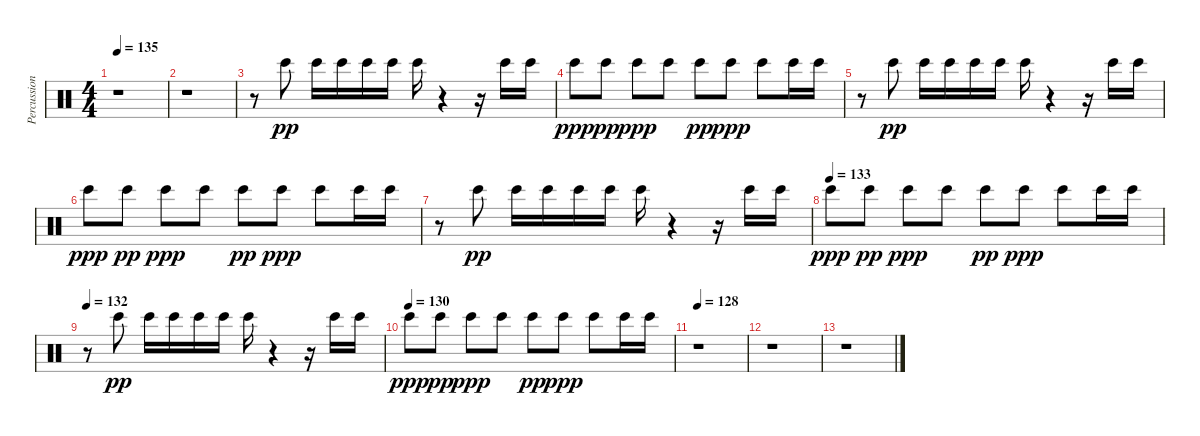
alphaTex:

\track ("Percussion" "Percussion") {instrument percussion}
\staff {score}
\articulation defaults
\ts (4 4)
\tempo 135
\clef neutral
\ks c
r.1{dy pp} |
r.1 |
r.8 "Bongo High (hit)".8{volume 15} "Bongo High (hit)".16{volume 15} "Bongo High (hit)".16{volume 15} "Bongo High (hit)".16{volume 15} "Bongo High (hit)".16{volume 14} "Bongo High (hit)".16{volume 14} r.4 r.16 "Bongo High (hit)".16{volume 13} "Bongo High (hit)".16{volume 13} |
"Bongo High (hit)".8{dy ppp volume 13} "Bongo High (hit)".8{dy pp volume 12} "Bongo High (hit)".8{dy ppp volume 12} "Bongo High (hit)".8{volume 11} "Bongo High (hit)".8{dy pp volume 11} "Bongo High (hit)".8{dy ppp volume 11} "Bongo High (hit)".8{volume 10} "Bongo High (hit)".16{volume 10} "Bongo High (hit)".16{volume 10} |
r.8 "Bongo High (hit)".8{dy pp volume 9} "Bongo High (hit)".16{volume 9} "Bongo High (hit)".16{volume 8} "Bongo High (hit)".16{volume 8} "Bongo High (hit)".16{volume 8} "Bongo High (hit)".16{volume 8} r.4 r.16 "Bongo High (hit)".16{volume 7} "Bongo High (hit)".16{volume 6} |
"Bongo High (hit)".8{dy ppp volume 6} "Bongo High (hit)".8{dy pp volume 6} "Bongo High (hit)".8{dy ppp volume 5} "Bongo High (hit)".8{volume 5} "Bongo High (hit)".8{dy pp volume 5} "Bongo High (hit)".8{dy ppp volume 4} "Bongo High (hit)".8{volume 4} "Bongo High (hit)".16{volume 3} "Bongo High (hit)".16{volume 3} |
r.8 "Bongo High (hit)".8{dy pp volume 3} "Bongo High (hit)".16 "Bongo High (hit)".16 "Bongo High (hit)".16 "Bongo High (hit)".16 "Bongo High (hit)".16 r.4 r.16 "Bongo High (hit)".16 "Bongo High (hit)".16 |
\tempo (133)
"Bongo High (hit)".8{dy ppp} "Bongo High (hit)".8{dy pp} "Bongo High (hit)".8{dy ppp} "Bongo High (hit)".8 "Bongo High (hit)".8{dy pp} "Bongo High (hit)".8{dy ppp} "Bongo High (hit)".8 "Bongo High (hit)".16 "Bongo High (hit)".16 |
\tempo 132
r.8 "Bongo High (hit)".8{dy pp} "Bongo High (hit)".16 "Bongo High (hit)".16 "Bongo High (hit)".16 "Bongo High (hit)".16 "Bongo High (hit)".16 r.4 r.16 "Bongo High (hit)".16 "Bongo High (hit)".16 |
\tempo (130)
"Bongo High (hit)".8{dy ppp} "Bongo High (hit)".8{dy pp} "Bongo High (hit)".8{dy ppp} "Bongo High (hit)".8 "Bongo High (hit)".8{dy pp} "Bongo High (hit)".8{dy ppp} "Bongo High (hit)".8 "Bongo High (hit)".16 "Bongo High (hit)".16 |
\tempo 128
r.1 |
r.1 |
r.1
